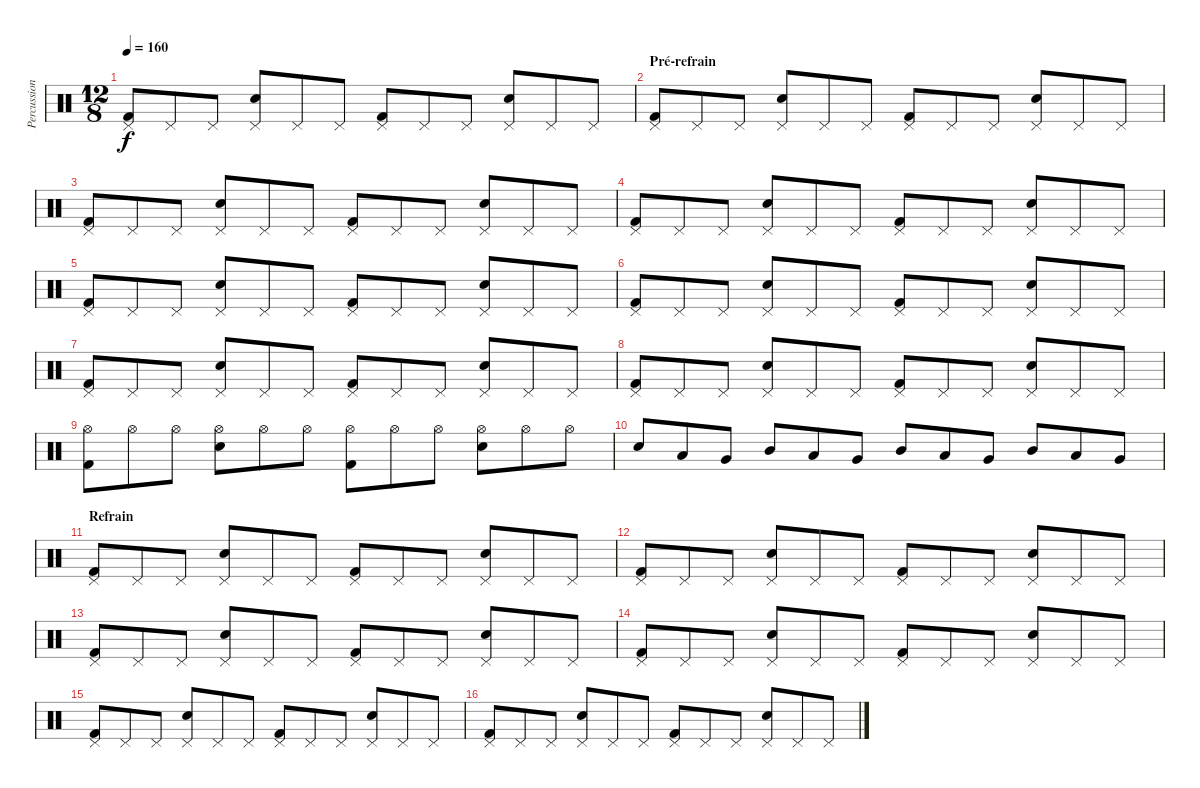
\track ("Percussions" "Percussion") {instrument percussion}
\staff {score}
\articulation defaults
\ts (12 8)
\tempo 160
\clef neutral
\ks c
("Pedal Hi-Hat (hit)" "Kick (hit) 2").8{dy f} "Pedal Hi-Hat (hit)".8 "Pedal Hi-Hat (hit)".8 ("Pedal Hi-Hat (hit)" "Electric Snare (hit)").8 "Pedal Hi-Hat (hit)".8 "Pedal Hi-Hat (hit)".8 ("Pedal Hi-Hat (hit)" "Kick (hit) 2").8 "Pedal Hi-Hat (hit)".8 "Pedal Hi-Hat (hit)".8 ("Pedal Hi-Hat (hit)" "Electric Snare (hit)").8 "Pedal Hi-Hat (hit)".8 "Pedal Hi-Hat (hit)".8 |
\section ("" "Pré-refrain")
("Pedal Hi-Hat (hit)" "Kick (hit) 2").8 "Pedal Hi-Hat (hit)".8 "Pedal Hi-Hat (hit)".8 ("Pedal Hi-Hat (hit)" "Electric Snare (hit)").8 "Pedal Hi-Hat (hit)".8 "Pedal Hi-Hat (hit)".8 ("Pedal Hi-Hat (hit)" "Kick (hit) 2").8 "Pedal Hi-Hat (hit)".8 "Pedal Hi-Hat (hit)".8 ("Pedal Hi-Hat (hit)" "Electric Snare (hit)").8 "Pedal Hi-Hat (hit)".8 "Pedal Hi-Hat (hit)".8 |
("Pedal Hi-Hat (hit)" "Kick (hit) 2").8 "Pedal Hi-Hat (hit)".8 "Pedal Hi-Hat (hit)".8 ("Pedal Hi-Hat (hit)" "Electric Snare (hit)").8 "Pedal Hi-Hat (hit)".8 "Pedal Hi-Hat (hit)".8 ("Pedal Hi-Hat (hit)" "Kick (hit) 2").8 "Pedal Hi-Hat (hit)".8 "Pedal Hi-Hat (hit)".8 ("Pedal Hi-Hat (hit)" "Electric Snare (hit)").8 "Pedal Hi-Hat (hit)".8 "Pedal Hi-Hat (hit)".8 |
("Pedal Hi-Hat (hit)" "Kick (hit) 2").8 "Pedal Hi-Hat (hit)".8 "Pedal Hi-Hat (hit)".8 ("Pedal Hi-Hat (hit)" "Electric Snare (hit)").8 "Pedal Hi-Hat (hit)".8 "Pedal Hi-Hat (hit)".8 ("Pedal Hi-Hat (hit)" "Kick (hit) 2").8 "Pedal Hi-Hat (hit)".8 "Pedal Hi-Hat (hit)".8 ("Pedal Hi-Hat (hit)" "Electric Snare (hit)").8 "Pedal Hi-Hat (hit)".8 "Pedal Hi-Hat (hit)".8 |
("Pedal Hi-Hat (hit)" "Kick (hit) 2").8 "Pedal Hi-Hat (hit)".8 "Pedal Hi-Hat (hit)".8 ("Pedal Hi-Hat (hit)" "Electric Snare (hit)").8 "Pedal Hi-Hat (hit)".8 "Pedal Hi-Hat (hit)".8 ("Pedal Hi-Hat (hit)" "Kick (hit) 2").8 "Pedal Hi-Hat (hit)".8 "Pedal Hi-Hat (hit)".8 ("Pedal Hi-Hat (hit)" "Electric Snare (hit)").8 "Pedal Hi-Hat (hit)".8 "Pedal Hi-Hat (hit)".8 |
("Pedal Hi-Hat (hit)" "Kick (hit) 2").8 "Pedal Hi-Hat (hit)".8 "Pedal Hi-Hat (hit)".8 ("Pedal Hi-Hat (hit)" "Electric Snare (hit)").8 "Pedal Hi-Hat (hit)".8 "Pedal Hi-Hat (hit)".8 ("Pedal Hi-Hat (hit)" "Kick (hit) 2").8 "Pedal Hi-Hat (hit)".8 "Pedal Hi-Hat (hit)".8 ("Pedal Hi-Hat (hit)" "Electric Snare (hit)").8 "Pedal Hi-Hat (hit)".8 "Pedal Hi-Hat (hit)".8 |
("Pedal Hi-Hat (hit)" "Kick (hit) 2").8 "Pedal Hi-Hat (hit)".8 "Pedal Hi-Hat (hit)".8 ("Pedal Hi-Hat (hit)" "Electric Snare (hit)").8 "Pedal Hi-Hat (hit)".8 "Pedal Hi-Hat (hit)".8 ("Pedal Hi-Hat (hit)" "Kick (hit) 2").8 "Pedal Hi-Hat (hit)".8 "Pedal Hi-Hat (hit)".8 ("Pedal Hi-Hat (hit)" "Electric Snare (hit)").8 "Pedal Hi-Hat (hit)".8 "Pedal Hi-Hat (hit)".8 |
("Pedal Hi-Hat (hit)" "Kick (hit) 2").8 "Pedal Hi-Hat (hit)".8 "Pedal Hi-Hat (hit)".8 ("Pedal Hi-Hat (hit)" "Electric Snare (hit)").8 "Pedal Hi-Hat (hit)".8 "Pedal Hi-Hat (hit)".8 ("Pedal Hi-Hat (hit)" "Kick (hit) 2").8 "Pedal Hi-Hat (hit)".8 "Pedal Hi-Hat (hit)".8 ("Pedal Hi-Hat (hit)" "Electric Snare (hit)").8 "Pedal Hi-Hat (hit)".8 "Pedal Hi-Hat (hit)".8 |
("Hi-Hat (open)" "Kick (hit) 2").8 "Hi-Hat (open)".8 "Hi-Hat (open)".8 ("Hi-Hat (open)" "Electric Snare (hit)").8 "Hi-Hat (open)".8 "Hi-Hat (open)".8 ("Hi-Hat (open)" "Kick (hit) 2").8 "Hi-Hat (open)".8 "Hi-Hat (open)".8 ("Hi-Hat (open)" "Electric Snare (hit)").8 "Hi-Hat (open)".8 "Hi-Hat (open)".8 |
"Electric Snare (hit)".8 "Low Tom (hit)".8 "Very Low Tom (hit)".8 "Mid Tom (hit)".8 "Low Tom (hit)".8 "Very Low Tom (hit)".8 "Mid Tom (hit)".8 "Low Tom (hit)".8 "Very Low Tom (hit)".8 "Mid Tom (hit)".8 "Low Tom (hit)".8 "Very Low Tom (hit)".8 |
\section ("" "Refrain")
("Pedal Hi-Hat (hit)" "Kick (hit) 2").8 "Pedal Hi-Hat (hit)".8 "Pedal Hi-Hat (hit)".8 ("Pedal Hi-Hat (hit)" "Electric Snare (hit)").8 "Pedal Hi-Hat (hit)".8 "Pedal Hi-Hat (hit)".8 ("Pedal Hi-Hat (hit)" "Kick (hit) 2").8 "Pedal Hi-Hat (hit)".8 "Pedal Hi-Hat (hit)".8 ("Pedal Hi-Hat (hit)" "Electric Snare (hit)").8 "Pedal Hi-Hat (hit)".8 "Pedal Hi-Hat (hit)".8 |
("Pedal Hi-Hat (hit)" "Kick (hit) 2").8 "Pedal Hi-Hat (hit)".8 "Pedal Hi-Hat (hit)".8 ("Pedal Hi-Hat (hit)" "Electric Snare (hit)").8 "Pedal Hi-Hat (hit)".8 "Pedal Hi-Hat (hit)".8 ("Pedal Hi-Hat (hit)" "Kick (hit) 2").8 "Pedal Hi-Hat (hit)".8 "Pedal Hi-Hat (hit)".8 ("Pedal Hi-Hat (hit)" "Electric Snare (hit)").8 "Pedal Hi-Hat (hit)".8 "Pedal Hi-Hat (hit)".8 |
("Pedal Hi-Hat (hit)" "Kick (hit) 2").8 "Pedal Hi-Hat (hit)".8 "Pedal Hi-Hat (hit)".8 ("Pedal Hi-Hat (hit)" "Electric Snare (hit)").8 "Pedal Hi-Hat (hit)".8 "Pedal Hi-Hat (hit)".8 ("Pedal Hi-Hat (hit)" "Kick (hit) 2").8 "Pedal Hi-Hat (hit)".8 "Pedal Hi-Hat (hit)".8 ("Pedal Hi-Hat (hit)" "Electric Snare (hit)").8 "Pedal Hi-Hat (hit)".8 "Pedal Hi-Hat (hit)".8 |
("Pedal Hi-Hat (hit)" "Kick (hit) 2").8 "Pedal Hi-Hat (hit)".8 "Pedal Hi-Hat (hit)".8 ("Pedal Hi-Hat (hit)" "Electric Snare (hit)").8 "Pedal Hi-Hat (hit)".8 "Pedal Hi-Hat (hit)".8 ("Pedal Hi-Hat (hit)" "Kick (hit) 2").8 "Pedal Hi-Hat (hit)".8 "Pedal Hi-Hat (hit)".8 ("Pedal Hi-Hat (hit)" "Electric Snare (hit)").8 "Pedal Hi-Hat (hit)".8 "Pedal Hi-Hat (hit)".8 |
("Pedal Hi-Hat (hit)" "Kick (hit) 2").8 "Pedal Hi-Hat (hit)".8 "Pedal Hi-Hat (hit)".8 ("Pedal Hi-Hat (hit)" "Electric Snare (hit)").8 "Pedal Hi-Hat (hit)".8 "Pedal Hi-Hat (hit)".8 ("Pedal Hi-Hat (hit)" "Kick (hit) 2").8 "Pedal Hi-Hat (hit)".8 "Pedal Hi-Hat (hit)".8 ("Pedal Hi-Hat (hit)" "Electric Snare (hit)").8 "Pedal Hi-Hat (hit)".8 "Pedal Hi-Hat (hit)".8 |
("Pedal Hi-Hat (hit)" "Kick (hit) 2").8 "Pedal Hi-Hat (hit)".8 "Pedal Hi-Hat (hit)".8 ("Pedal Hi-Hat (hit)" "Electric Snare (hit)").8 "Pedal Hi-Hat (hit)".8 "Pedal Hi-Hat (hit)".8 ("Pedal Hi-Hat (hit)" "Kick (hit) 2").8 "Pedal Hi-Hat (hit)".8 "Pedal Hi-Hat (hit)".8 ("Pedal Hi-Hat (hit)" "Electric Snare (hit)").8 "Pedal Hi-Hat (hit)".8 "Pedal Hi-Hat (hit)".8
